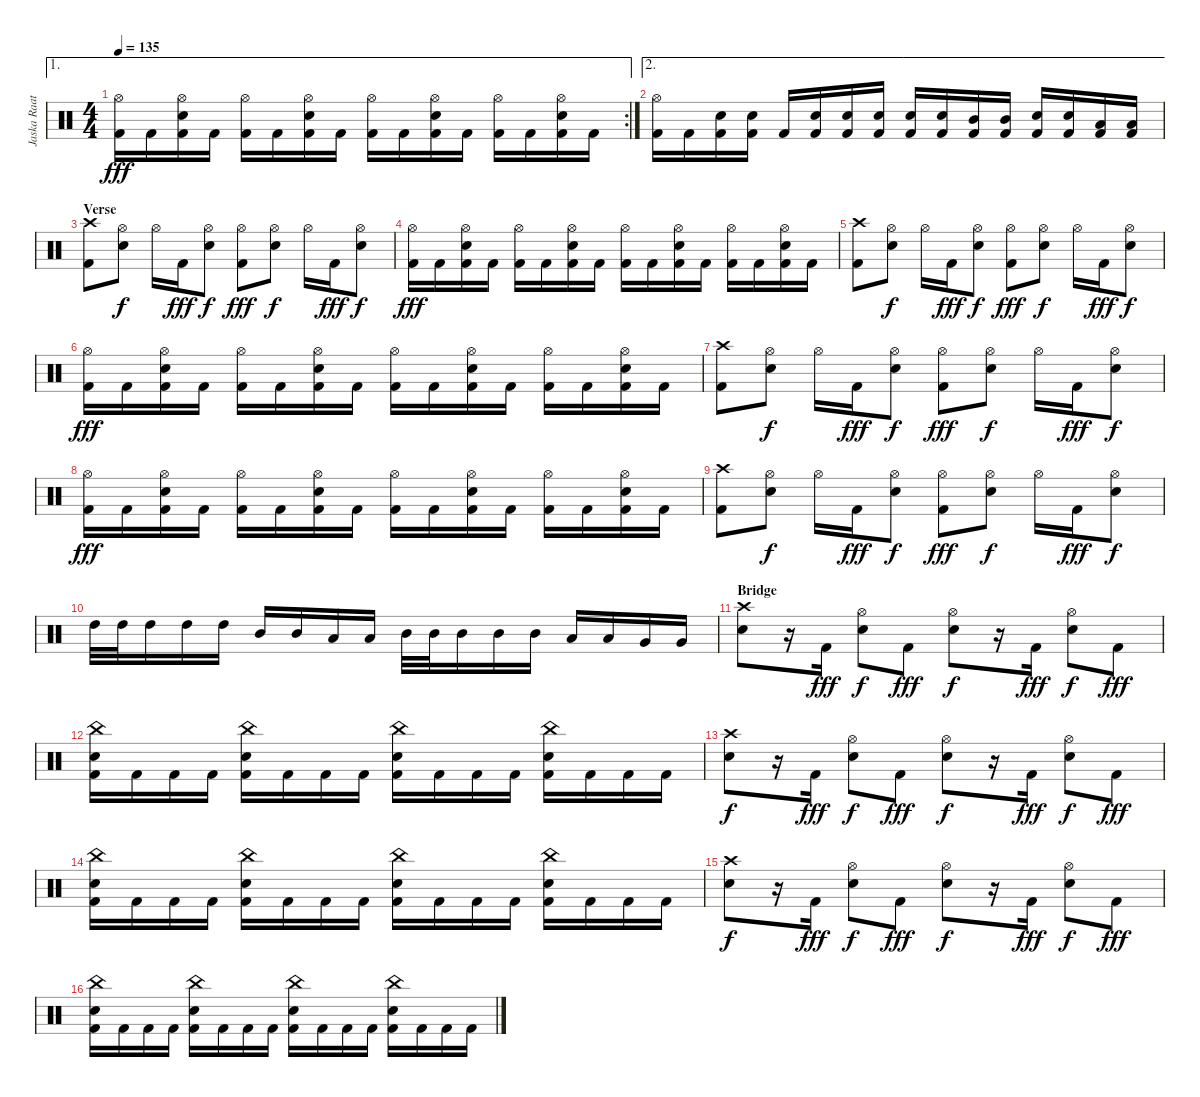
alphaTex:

\track ("Jaska Raatikainen" "Jaska Raat") {instrument percussion}
\staff {score}
\articulation defaults
\ae 1
\rc 2
\ts (4 4)
\tempo 135
\clef neutral
\ks c
("Hi-Hat (open)" "Kick (hit) 2").16{dy fff} "Kick (hit) 2".16 ("Hi-Hat (open)" "Electric Snare (hit)" "Kick (hit) 2").16 "Kick (hit) 2".16 ("Hi-Hat (open)" "Kick (hit) 2").16 "Kick (hit) 2".16 ("Hi-Hat (open)" "Electric Snare (hit)" "Kick (hit) 2").16 "Kick (hit) 2".16 ("Hi-Hat (open)" "Kick (hit) 2").16 "Kick (hit) 2".16 ("Hi-Hat (open)" "Electric Snare (hit)" "Kick (hit) 2").16 "Kick (hit) 2".16 ("Hi-Hat (open)" "Kick (hit) 2").16 "Kick (hit) 2".16 ("Hi-Hat (open)" "Electric Snare (hit)" "Kick (hit) 2").16 "Kick (hit) 2".16 |
\ae 2
("Hi-Hat (open)" "Kick (hit) 2").16 "Kick (hit) 2".16 ("Electric Snare (hit)" "Kick (hit) 2").16 ("Electric Snare (hit)" "Kick (hit) 2").16 "Kick (hit) 2".16 ("Electric Snare (hit)" "Kick (hit) 2").16 ("Electric Snare (hit)" "Kick (hit) 2").16 ("Electric Snare (hit)" "Kick (hit) 2").16 ("Electric Snare (hit)" "Kick (hit) 2").16 ("Electric Snare (hit)" "Kick (hit) 2").16 ("Mid Tom (hit)" "Kick (hit) 2").16 ("Mid Tom (hit)" "Kick (hit) 2").16 ("Electric Snare (hit)" "Kick (hit) 2").16 ("Electric Snare (hit)" "Kick (hit) 2").16 ("Low Tom (hit)" "Kick (hit) 2").16 ("Low Tom (hit)" "Kick (hit) 2").16 |
\section ("" "Verse")
("Crash high (hit)" "Kick (hit) 2").8 ("Hi-Hat (open)" "Electric Snare (hit)").8{dy f} "Hi-Hat (open)".16 "Kick (hit) 2".16{dy fff} ("Hi-Hat (open)" "Electric Snare (hit)").8{dy f} ("Hi-Hat (open)" "Kick (hit) 2").8{dy fff} ("Hi-Hat (open)" "Electric Snare (hit)").8{dy f} "Hi-Hat (open)".16 "Kick (hit) 2".16{dy fff} ("Hi-Hat (open)" "Electric Snare (hit)").8{dy f} |
("Hi-Hat (open)" "Kick (hit) 2").16{dy fff} "Kick (hit) 2".16 ("Hi-Hat (open)" "Electric Snare (hit)" "Kick (hit) 2").16 "Kick (hit) 2".16 ("Hi-Hat (open)" "Kick (hit) 2").16 "Kick (hit) 2".16 ("Hi-Hat (open)" "Electric Snare (hit)" "Kick (hit) 2").16 "Kick (hit) 2".16 ("Hi-Hat (open)" "Kick (hit) 2").16 "Kick (hit) 2".16 ("Hi-Hat (open)" "Electric Snare (hit)" "Kick (hit) 2").16 "Kick (hit) 2".16 ("Hi-Hat (open)" "Kick (hit) 2").16 "Kick (hit) 2".16 ("Hi-Hat (open)" "Electric Snare (hit)" "Kick (hit) 2").16 "Kick (hit) 2".16 |
("Crash high (hit)" "Kick (hit) 2").8 ("Hi-Hat (open)" "Electric Snare (hit)").8{dy f} "Hi-Hat (open)".16 "Kick (hit) 2".16{dy fff} ("Hi-Hat (open)" "Electric Snare (hit)").8{dy f} ("Hi-Hat (open)" "Kick (hit) 2").8{dy fff} ("Hi-Hat (open)" "Electric Snare (hit)").8{dy f} "Hi-Hat (open)".16 "Kick (hit) 2".16{dy fff} ("Hi-Hat (open)" "Electric Snare (hit)").8{dy f} |
("Hi-Hat (open)" "Kick (hit) 2").16{dy fff} "Kick (hit) 2".16 ("Hi-Hat (open)" "Electric Snare (hit)" "Kick (hit) 2").16 "Kick (hit) 2".16 ("Hi-Hat (open)" "Kick (hit) 2").16 "Kick (hit) 2".16 ("Hi-Hat (open)" "Electric Snare (hit)" "Kick (hit) 2").16 "Kick (hit) 2".16 ("Hi-Hat (open)" "Kick (hit) 2").16 "Kick (hit) 2".16 ("Hi-Hat (open)" "Electric Snare (hit)" "Kick (hit) 2").16 "Kick (hit) 2".16 ("Hi-Hat (open)" "Kick (hit) 2").16 "Kick (hit) 2".16 ("Hi-Hat (open)" "Electric Snare (hit)" "Kick (hit) 2").16 "Kick (hit) 2".16 |
("Crash high (hit)" "Kick (hit) 2").8 ("Hi-Hat (open)" "Electric Snare (hit)").8{dy f} "Hi-Hat (open)".16 "Kick (hit) 2".16{dy fff} ("Hi-Hat (open)" "Electric Snare (hit)").8{dy f} ("Hi-Hat (open)" "Kick (hit) 2").8{dy fff} ("Hi-Hat (open)" "Electric Snare (hit)").8{dy f} "Hi-Hat (open)".16 "Kick (hit) 2".16{dy fff} ("Hi-Hat (open)" "Electric Snare (hit)").8{dy f} |
("Hi-Hat (open)" "Kick (hit) 2").16{dy fff} "Kick (hit) 2".16 ("Hi-Hat (open)" "Electric Snare (hit)" "Kick (hit) 2").16 "Kick (hit) 2".16 ("Hi-Hat (open)" "Kick (hit) 2").16 "Kick (hit) 2".16 ("Hi-Hat (open)" "Electric Snare (hit)" "Kick (hit) 2").16 "Kick (hit) 2".16 ("Hi-Hat (open)" "Kick (hit) 2").16 "Kick (hit) 2".16 ("Hi-Hat (open)" "Electric Snare (hit)" "Kick (hit) 2").16 "Kick (hit) 2".16 ("Hi-Hat (open)" "Kick (hit) 2").16 "Kick (hit) 2".16 ("Hi-Hat (open)" "Electric Snare (hit)" "Kick (hit) 2").16 "Kick (hit) 2".16 |
("Crash high (hit)" "Kick (hit) 2").8 ("Hi-Hat (open)" "Electric Snare (hit)").8{dy f} "Hi-Hat (open)".16 "Kick (hit) 2".16{dy fff} ("Hi-Hat (open)" "Electric Snare (hit)").8{dy f} ("Hi-Hat (open)" "Kick (hit) 2").8{dy fff} ("Hi-Hat (open)" "Electric Snare (hit)").8{dy f} "Hi-Hat (open)".16 "Kick (hit) 2".16{dy fff} ("Hi-Hat (open)" "Electric Snare (hit)").8{dy f} |
"High Tom (hit)".32 "High Tom (hit)".32 "High Tom (hit)".16 "High Tom (hit)".16 "High Tom (hit)".16 "Mid Tom (hit)".16 "Mid Tom (hit)".16 "Low Tom (hit)".16 "Low Tom (hit)".16 "Mid Tom (hit)".32 "Mid Tom (hit)".32 "Mid Tom (hit)".16 "Mid Tom (hit)".16 "Mid Tom (hit)".16 "Low Tom (hit)".16 "Low Tom (hit)".16 "Very Low Tom (hit)".16 "Very Low Tom (hit)".16 |
\section ("" "Bridge")
("Crash high (hit)" "Electric Snare (hit)").8 r.16 "Kick (hit) 2".16{dy fff} ("Hi-Hat (open)" "Electric Snare (hit)").8{dy f} "Kick (hit) 2".8{dy fff} ("Hi-Hat (open)" "Electric Snare (hit)").8{dy f} r.16 "Kick (hit) 2".16{dy fff} ("Hi-Hat (open)" "Electric Snare (hit)").8{dy f} "Kick (hit) 2".8{dy fff} |
("China (hit)" "Electric Snare (hit)" "Kick (hit) 2").16 "Kick (hit) 2".16 "Kick (hit) 2".16 "Kick (hit) 2".16 ("China (hit)" "Electric Snare (hit)" "Kick (hit) 2").16 "Kick (hit) 2".16 "Kick (hit) 2".16 "Kick (hit) 2".16 ("China (hit)" "Electric Snare (hit)" "Kick (hit) 2").16 "Kick (hit) 2".16 "Kick (hit) 2".16 "Kick (hit) 2".16 ("China (hit)" "Electric Snare (hit)" "Kick (hit) 2").16 "Kick (hit) 2".16 "Kick (hit) 2".16 "Kick (hit) 2".16 |
("Crash high (hit)" "Electric Snare (hit)").8{dy f} r.16 "Kick (hit) 2".16{dy fff} ("Hi-Hat (open)" "Electric Snare (hit)").8{dy f} "Kick (hit) 2".8{dy fff} ("Hi-Hat (open)" "Electric Snare (hit)").8{dy f} r.16 "Kick (hit) 2".16{dy fff} ("Hi-Hat (open)" "Electric Snare (hit)").8{dy f} "Kick (hit) 2".8{dy fff} |
("China (hit)" "Electric Snare (hit)" "Kick (hit) 2").16 "Kick (hit) 2".16 "Kick (hit) 2".16 "Kick (hit) 2".16 ("China (hit)" "Electric Snare (hit)" "Kick (hit) 2").16 "Kick (hit) 2".16 "Kick (hit) 2".16 "Kick (hit) 2".16 ("China (hit)" "Electric Snare (hit)" "Kick (hit) 2").16 "Kick (hit) 2".16 "Kick (hit) 2".16 "Kick (hit) 2".16 ("China (hit)" "Electric Snare (hit)" "Kick (hit) 2").16 "Kick (hit) 2".16 "Kick (hit) 2".16 "Kick (hit) 2".16 |
("Crash high (hit)" "Electric Snare (hit)").8{dy f} r.16 "Kick (hit) 2".16{dy fff} ("Hi-Hat (open)" "Electric Snare (hit)").8{dy f} "Kick (hit) 2".8{dy fff} ("Hi-Hat (open)" "Electric Snare (hit)").8{dy f} r.16 "Kick (hit) 2".16{dy fff} ("Hi-Hat (open)" "Electric Snare (hit)").8{dy f} "Kick (hit) 2".8{dy fff} |
("China (hit)" "Electric Snare (hit)" "Kick (hit) 2").16 "Kick (hit) 2".16 "Kick (hit) 2".16 "Kick (hit) 2".16 ("China (hit)" "Electric Snare (hit)" "Kick (hit) 2").16 "Kick (hit) 2".16 "Kick (hit) 2".16 "Kick (hit) 2".16 ("China (hit)" "Electric Snare (hit)" "Kick (hit) 2").16 "Kick (hit) 2".16 "Kick (hit) 2".16 "Kick (hit) 2".16 ("China (hit)" "Electric Snare (hit)" "Kick (hit) 2").16 "Kick (hit) 2".16 "Kick (hit) 2".16 "Kick (hit) 2".16
